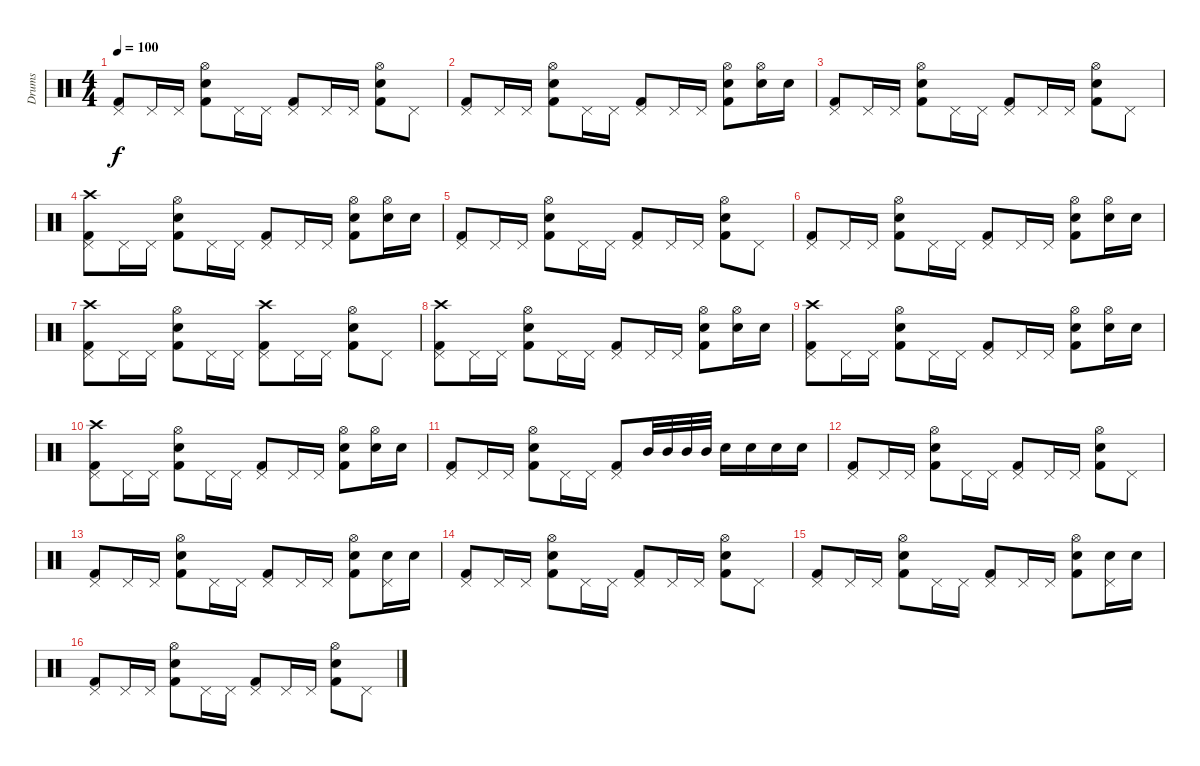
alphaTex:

\track ("Drums" "Drums") {instrument percussion}
\staff
\articulation defaults
\ts (4 4)
\tempo 100
\clef neutral
\ks c
("Pedal Hi-Hat (hit)" "Kick (hit) 2").8{dy f} "Pedal Hi-Hat (hit)".16 "Pedal Hi-Hat (hit)".16 ("Electric Snare (hit)" "Hi-Hat (open)" "Kick (hit) 2").8 "Pedal Hi-Hat (hit)".16 "Pedal Hi-Hat (hit)".16 ("Pedal Hi-Hat (hit)" "Kick (hit) 2").8 "Pedal Hi-Hat (hit)".16 "Pedal Hi-Hat (hit)".16 ("Electric Snare (hit)" "Hi-Hat (open)" "Kick (hit) 2").8 "Pedal Hi-Hat (hit)".8 |
("Pedal Hi-Hat (hit)" "Kick (hit) 2").8 "Pedal Hi-Hat (hit)".16 "Pedal Hi-Hat (hit)".16 ("Electric Snare (hit)" "Hi-Hat (open)" "Kick (hit) 2").8 "Pedal Hi-Hat (hit)".16 "Pedal Hi-Hat (hit)".16 ("Pedal Hi-Hat (hit)" "Kick (hit) 2").8 "Pedal Hi-Hat (hit)".16 "Pedal Hi-Hat (hit)".16 ("Electric Snare (hit)" "Hi-Hat (open)" "Kick (hit) 2").8 ("Hi-Hat (open)" "Electric Snare (hit)").16 "Electric Snare (hit)".16 |
("Pedal Hi-Hat (hit)" "Kick (hit) 2").8 "Pedal Hi-Hat (hit)".16 "Pedal Hi-Hat (hit)".16 ("Electric Snare (hit)" "Hi-Hat (open)" "Kick (hit) 2").8 "Pedal Hi-Hat (hit)".16 "Pedal Hi-Hat (hit)".16 ("Pedal Hi-Hat (hit)" "Kick (hit) 2").8 "Pedal Hi-Hat (hit)".16 "Pedal Hi-Hat (hit)".16 ("Electric Snare (hit)" "Hi-Hat (open)" "Kick (hit) 2").8 "Pedal Hi-Hat (hit)".8 |
("Crash high (hit)" "Pedal Hi-Hat (hit)" "Kick (hit) 2").8 "Pedal Hi-Hat (hit)".16 "Pedal Hi-Hat (hit)".16 ("Electric Snare (hit)" "Hi-Hat (open)" "Kick (hit) 2").8 "Pedal Hi-Hat (hit)".16 "Pedal Hi-Hat (hit)".16 ("Pedal Hi-Hat (hit)" "Kick (hit) 2").8 "Pedal Hi-Hat (hit)".16 "Pedal Hi-Hat (hit)".16 ("Electric Snare (hit)" "Hi-Hat (open)" "Kick (hit) 2").8 ("Hi-Hat (open)" "Electric Snare (hit)").16 "Electric Snare (hit)".16 |
("Pedal Hi-Hat (hit)" "Kick (hit) 2").8 "Pedal Hi-Hat (hit)".16 "Pedal Hi-Hat (hit)".16 ("Electric Snare (hit)" "Hi-Hat (open)" "Kick (hit) 2").8 "Pedal Hi-Hat (hit)".16 "Pedal Hi-Hat (hit)".16 ("Pedal Hi-Hat (hit)" "Kick (hit) 2").8 "Pedal Hi-Hat (hit)".16 "Pedal Hi-Hat (hit)".16 ("Electric Snare (hit)" "Hi-Hat (open)" "Kick (hit) 2").8 "Pedal Hi-Hat (hit)".8 |
("Pedal Hi-Hat (hit)" "Kick (hit) 2").8 "Pedal Hi-Hat (hit)".16 "Pedal Hi-Hat (hit)".16 ("Electric Snare (hit)" "Hi-Hat (open)" "Kick (hit) 2").8 "Pedal Hi-Hat (hit)".16 "Pedal Hi-Hat (hit)".16 ("Pedal Hi-Hat (hit)" "Kick (hit) 2").8 "Pedal Hi-Hat (hit)".16 "Pedal Hi-Hat (hit)".16 ("Electric Snare (hit)" "Hi-Hat (open)" "Kick (hit) 2").8 ("Hi-Hat (open)" "Electric Snare (hit)").16 "Electric Snare (hit)".16 |
("Pedal Hi-Hat (hit)" "Crash high (hit)" "Kick (hit) 2").8 "Pedal Hi-Hat (hit)".16 "Pedal Hi-Hat (hit)".16 ("Electric Snare (hit)" "Hi-Hat (open)" "Kick (hit) 2").8 "Pedal Hi-Hat (hit)".16 "Pedal Hi-Hat (hit)".16 ("Pedal Hi-Hat (hit)" "Crash high (hit)" "Kick (hit) 2").8 "Pedal Hi-Hat (hit)".16 "Pedal Hi-Hat (hit)".16 ("Electric Snare (hit)" "Hi-Hat (open)" "Kick (hit) 2").8 "Pedal Hi-Hat (hit)".8 |
("Crash high (hit)" "Pedal Hi-Hat (hit)" "Kick (hit) 2").8 "Pedal Hi-Hat (hit)".16 "Pedal Hi-Hat (hit)".16 ("Electric Snare (hit)" "Hi-Hat (open)" "Kick (hit) 2").8 "Pedal Hi-Hat (hit)".16 "Pedal Hi-Hat (hit)".16 ("Pedal Hi-Hat (hit)" "Kick (hit) 2").8 "Pedal Hi-Hat (hit)".16 "Pedal Hi-Hat (hit)".16 ("Electric Snare (hit)" "Hi-Hat (open)" "Kick (hit) 2").8 ("Hi-Hat (open)" "Electric Snare (hit)").16 "Electric Snare (hit)".16 |
("Crash high (hit)" "Pedal Hi-Hat (hit)" "Kick (hit) 2").8 "Pedal Hi-Hat (hit)".16 "Pedal Hi-Hat (hit)".16 ("Electric Snare (hit)" "Hi-Hat (open)" "Kick (hit) 2").8 "Pedal Hi-Hat (hit)".16 "Pedal Hi-Hat (hit)".16 ("Pedal Hi-Hat (hit)" "Kick (hit) 2").8 "Pedal Hi-Hat (hit)".16 "Pedal Hi-Hat (hit)".16 ("Electric Snare (hit)" "Hi-Hat (open)" "Kick (hit) 2").8 ("Hi-Hat (open)" "Electric Snare (hit)").16 "Electric Snare (hit)".16 |
("Crash high (hit)" "Pedal Hi-Hat (hit)" "Kick (hit) 2").8 "Pedal Hi-Hat (hit)".16 "Pedal Hi-Hat (hit)".16 ("Electric Snare (hit)" "Hi-Hat (open)" "Kick (hit) 2").8 "Pedal Hi-Hat (hit)".16 "Pedal Hi-Hat (hit)".16 ("Pedal Hi-Hat (hit)" "Kick (hit) 2").8 "Pedal Hi-Hat (hit)".16 "Pedal Hi-Hat (hit)".16 ("Electric Snare (hit)" "Hi-Hat (open)" "Kick (hit) 2").8 ("Hi-Hat (open)" "Electric Snare (hit)").16 "Electric Snare (hit)".16 |
("Pedal Hi-Hat (hit)" "Kick (hit) 2").8 "Pedal Hi-Hat (hit)".16 "Pedal Hi-Hat (hit)".16 ("Electric Snare (hit)" "Hi-Hat (open)" "Kick (hit) 2").8 "Pedal Hi-Hat (hit)".16 "Pedal Hi-Hat (hit)".16 ("Pedal Hi-Hat (hit)" "Kick (hit) 2").8 "Mid Tom (hit)".32 "Mid Tom (hit)".32 "Mid Tom (hit)".32 "Mid Tom (hit)".32 "Electric Snare (hit)".16 "Electric Snare (hit)".16 "Electric Snare (hit)".16 "Electric Snare (hit)".16 |
("Pedal Hi-Hat (hit)" "Kick (hit) 2").8 "Pedal Hi-Hat (hit)".16 "Pedal Hi-Hat (hit)".16 ("Electric Snare (hit)" "Hi-Hat (open)" "Kick (hit) 2").8 "Pedal Hi-Hat (hit)".16 "Pedal Hi-Hat (hit)".16 ("Pedal Hi-Hat (hit)" "Kick (hit) 2").8 "Pedal Hi-Hat (hit)".16 "Pedal Hi-Hat (hit)".16 ("Electric Snare (hit)" "Hi-Hat (open)" "Kick (hit) 2").8 "Pedal Hi-Hat (hit)".8 |
("Pedal Hi-Hat (hit)" "Kick (hit) 2").8 "Pedal Hi-Hat (hit)".16 "Pedal Hi-Hat (hit)".16 ("Electric Snare (hit)" "Hi-Hat (open)" "Kick (hit) 2").8 "Pedal Hi-Hat (hit)".16 "Pedal Hi-Hat (hit)".16 ("Pedal Hi-Hat (hit)" "Kick (hit) 2").8 "Pedal Hi-Hat (hit)".16 "Pedal Hi-Hat (hit)".16 ("Electric Snare (hit)" "Hi-Hat (open)" "Kick (hit) 2").8 ("Pedal Hi-Hat (hit)" "Electric Snare (hit)").16 "Electric Snare (hit)".16 |
("Pedal Hi-Hat (hit)" "Kick (hit) 2").8 "Pedal Hi-Hat (hit)".16 "Pedal Hi-Hat (hit)".16 ("Electric Snare (hit)" "Hi-Hat (open)" "Kick (hit) 2").8 "Pedal Hi-Hat (hit)".16 "Pedal Hi-Hat (hit)".16 ("Pedal Hi-Hat (hit)" "Kick (hit) 2").8 "Pedal Hi-Hat (hit)".16 "Pedal Hi-Hat (hit)".16 ("Electric Snare (hit)" "Hi-Hat (open)" "Kick (hit) 2").8 "Pedal Hi-Hat (hit)".8 |
("Pedal Hi-Hat (hit)" "Kick (hit) 2").8 "Pedal Hi-Hat (hit)".16 "Pedal Hi-Hat (hit)".16 ("Electric Snare (hit)" "Hi-Hat (open)" "Kick (hit) 2").8 "Pedal Hi-Hat (hit)".16 "Pedal Hi-Hat (hit)".16 ("Pedal Hi-Hat (hit)" "Kick (hit) 2").8 "Pedal Hi-Hat (hit)".16 "Pedal Hi-Hat (hit)".16 ("Electric Snare (hit)" "Hi-Hat (open)" "Kick (hit) 2").8 ("Pedal Hi-Hat (hit)" "Electric Snare (hit)").16 "Electric Snare (hit)".16 |
("Pedal Hi-Hat (hit)" "Kick (hit) 2").8 "Pedal Hi-Hat (hit)".16 "Pedal Hi-Hat (hit)".16 ("Electric Snare (hit)" "Hi-Hat (open)" "Kick (hit) 2").8 "Pedal Hi-Hat (hit)".16 "Pedal Hi-Hat (hit)".16 ("Pedal Hi-Hat (hit)" "Kick (hit) 2").8 "Pedal Hi-Hat (hit)".16 "Pedal Hi-Hat (hit)".16 ("Electric Snare (hit)" "Hi-Hat (open)" "Kick (hit) 2").8 "Pedal Hi-Hat (hit)".8
